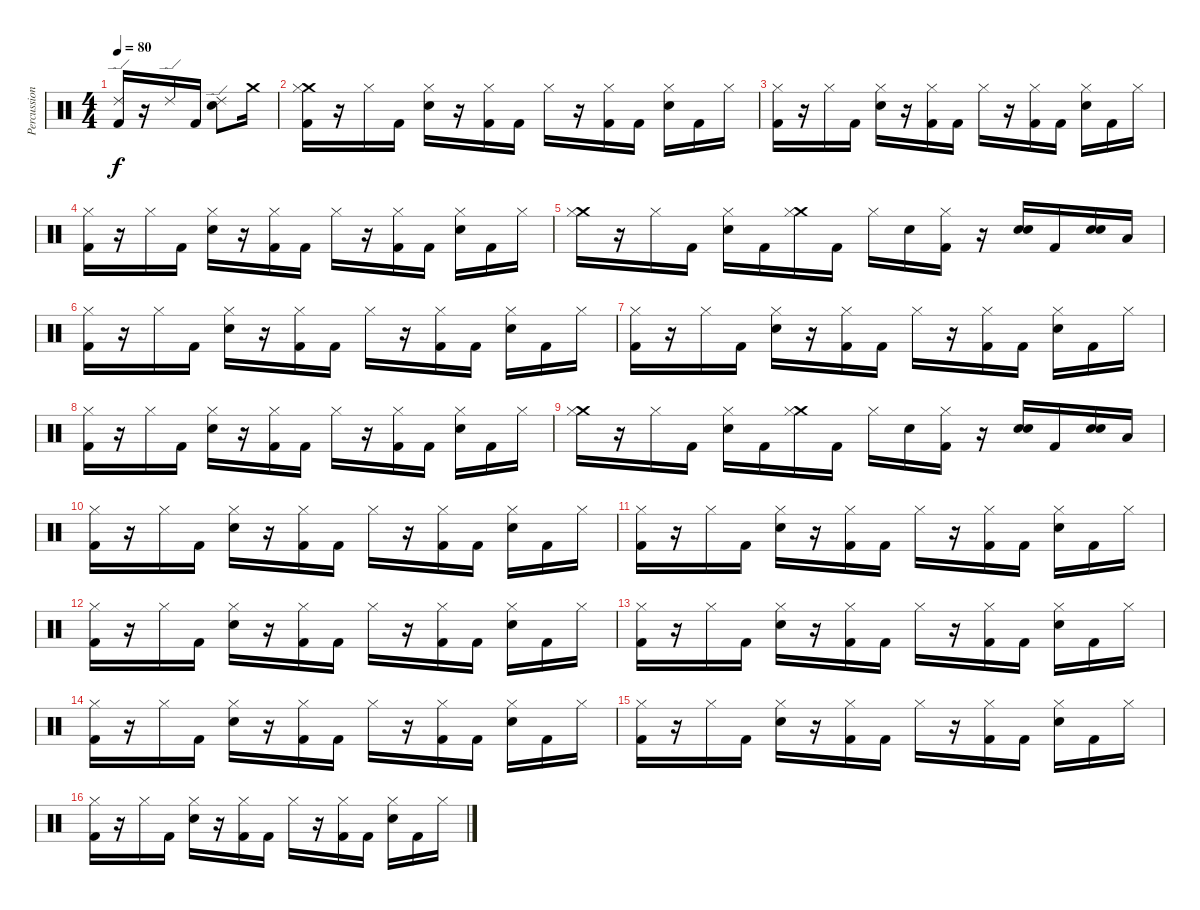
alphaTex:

\track ("Percussion" "Percussion") {instrument percussion}
\staff {score}
\articulation defaults
\ts (4 4)
\tempo 80
\clef neutral
\ks c
("Ride (edge) 2" "Kick (hit) 2").16{dy f} r.16 "Ride (edge) 2".16 "Kick (hit) 2".16 ("Ride (edge) 2" "Electric Snare (hit)").8 "Crash medium (hit)".16 |
("Crash medium (hit)" "Hi-Hat (closed)" "Kick (hit) 2").16 r.16 "Hi-Hat (closed)".16 "Kick (hit) 2".16 ("Hi-Hat (closed)" "Electric Snare (hit)").16 r.16 ("Hi-Hat (closed)" "Kick (hit) 2").16 "Kick (hit) 2".16 "Hi-Hat (closed)".16 r.16 ("Hi-Hat (closed)" "Kick (hit) 2").16 "Kick (hit) 2".16 ("Hi-Hat (closed)" "Electric Snare (hit)").16 "Kick (hit) 2".16 "Hi-Hat (closed)".16 |
("Hi-Hat (closed)" "Kick (hit) 2").16 r.16 "Hi-Hat (closed)".16 "Kick (hit) 2".16 ("Hi-Hat (closed)" "Electric Snare (hit)").16 r.16 ("Hi-Hat (closed)" "Kick (hit) 2").16 "Kick (hit) 2".16 "Hi-Hat (closed)".16 r.16 ("Hi-Hat (closed)" "Kick (hit) 2").16 "Kick (hit) 2".16 ("Hi-Hat (closed)" "Electric Snare (hit)").16 "Kick (hit) 2".16 "Hi-Hat (closed)".16 |
("Hi-Hat (closed)" "Kick (hit) 2").16 r.16 "Hi-Hat (closed)".16 "Kick (hit) 2".16 ("Hi-Hat (closed)" "Electric Snare (hit)").16 r.16 ("Hi-Hat (closed)" "Kick (hit) 2").16 "Kick (hit) 2".16 "Hi-Hat (closed)".16 r.16 ("Hi-Hat (closed)" "Kick (hit) 2").16 "Kick (hit) 2".16 ("Hi-Hat (closed)" "Electric Snare (hit)").16 "Kick (hit) 2".16 "Hi-Hat (closed)".16 |
("Crash medium (hit)" "Hi-Hat (closed)").16 r.16 "Hi-Hat (closed)".16 "Kick (hit) 2".16 ("Hi-Hat (closed)" "Electric Snare (hit)").16 "Kick (hit) 2".16 ("Crash medium (hit)" "Hi-Hat (closed)").16 "Kick (hit) 2".16 "Hi-Hat (closed)".16 "Electric Snare (hit)".16 ("Hi-Hat (closed)" "Kick (hit) 2").16 r.16 ("Electric Snare (hit)" "Electric Snare (hit)").16 "Kick (hit) 2".16 ("Electric Snare (hit)" "Electric Snare (hit)").16 "Low Tom (hit)".16 |
("Hi-Hat (closed)" "Kick (hit) 2").16 r.16 "Hi-Hat (closed)".16 "Kick (hit) 2".16 ("Hi-Hat (closed)" "Electric Snare (hit)").16 r.16 ("Hi-Hat (closed)" "Kick (hit) 2").16 "Kick (hit) 2".16 "Hi-Hat (closed)".16 r.16 ("Hi-Hat (closed)" "Kick (hit) 2").16 "Kick (hit) 2".16 ("Hi-Hat (closed)" "Electric Snare (hit)").16 "Kick (hit) 2".16 "Hi-Hat (closed)".16 |
("Hi-Hat (closed)" "Kick (hit) 2").16 r.16 "Hi-Hat (closed)".16 "Kick (hit) 2".16 ("Hi-Hat (closed)" "Electric Snare (hit)").16 r.16 ("Hi-Hat (closed)" "Kick (hit) 2").16 "Kick (hit) 2".16 "Hi-Hat (closed)".16 r.16 ("Hi-Hat (closed)" "Kick (hit) 2").16 "Kick (hit) 2".16 ("Hi-Hat (closed)" "Electric Snare (hit)").16 "Kick (hit) 2".16 "Hi-Hat (closed)".16 |
("Hi-Hat (closed)" "Kick (hit) 2").16 r.16 "Hi-Hat (closed)".16 "Kick (hit) 2".16 ("Hi-Hat (closed)" "Electric Snare (hit)").16 r.16 ("Hi-Hat (closed)" "Kick (hit) 2").16 "Kick (hit) 2".16 "Hi-Hat (closed)".16 r.16 ("Hi-Hat (closed)" "Kick (hit) 2").16 "Kick (hit) 2".16 ("Hi-Hat (closed)" "Electric Snare (hit)").16 "Kick (hit) 2".16 "Hi-Hat (closed)".16 |
("Crash medium (hit)" "Hi-Hat (closed)").16 r.16 "Hi-Hat (closed)".16 "Kick (hit) 2".16 ("Hi-Hat (closed)" "Electric Snare (hit)").16 "Kick (hit) 2".16 ("Crash medium (hit)" "Hi-Hat (closed)").16 "Kick (hit) 2".16 "Hi-Hat (closed)".16 "Electric Snare (hit)".16 ("Hi-Hat (closed)" "Kick (hit) 2").16 r.16 ("Electric Snare (hit)" "Electric Snare (hit)").16 "Kick (hit) 2".16 ("Electric Snare (hit)" "Electric Snare (hit)").16 "Low Tom (hit)".16 |
("Hi-Hat (closed)" "Kick (hit) 2").16 r.16 "Hi-Hat (closed)".16 "Kick (hit) 2".16 ("Hi-Hat (closed)" "Electric Snare (hit)").16 r.16 ("Hi-Hat (closed)" "Kick (hit) 2").16 "Kick (hit) 2".16 "Hi-Hat (closed)".16 r.16 ("Hi-Hat (closed)" "Kick (hit) 2").16 "Kick (hit) 2".16 ("Hi-Hat (closed)" "Electric Snare (hit)").16 "Kick (hit) 2".16 "Hi-Hat (closed)".16 |
("Hi-Hat (closed)" "Kick (hit) 2").16 r.16 "Hi-Hat (closed)".16 "Kick (hit) 2".16 ("Hi-Hat (closed)" "Electric Snare (hit)").16 r.16 ("Hi-Hat (closed)" "Kick (hit) 2").16 "Kick (hit) 2".16 "Hi-Hat (closed)".16 r.16 ("Hi-Hat (closed)" "Kick (hit) 2").16 "Kick (hit) 2".16 ("Hi-Hat (closed)" "Electric Snare (hit)").16 "Kick (hit) 2".16 "Hi-Hat (closed)".16 |
("Hi-Hat (closed)" "Kick (hit) 2").16 r.16 "Hi-Hat (closed)".16 "Kick (hit) 2".16 ("Hi-Hat (closed)" "Electric Snare (hit)").16 r.16 ("Hi-Hat (closed)" "Kick (hit) 2").16 "Kick (hit) 2".16 "Hi-Hat (closed)".16 r.16 ("Hi-Hat (closed)" "Kick (hit) 2").16 "Kick (hit) 2".16 ("Hi-Hat (closed)" "Electric Snare (hit)").16 "Kick (hit) 2".16 "Hi-Hat (closed)".16 |
("Hi-Hat (closed)" "Kick (hit) 2").16 r.16 "Hi-Hat (closed)".16 "Kick (hit) 2".16 ("Hi-Hat (closed)" "Electric Snare (hit)").16 r.16 ("Hi-Hat (closed)" "Kick (hit) 2").16 "Kick (hit) 2".16 "Hi-Hat (closed)".16 r.16 ("Hi-Hat (closed)" "Kick (hit) 2").16 "Kick (hit) 2".16 ("Hi-Hat (closed)" "Electric Snare (hit)").16 "Kick (hit) 2".16 "Hi-Hat (closed)".16 |
("Hi-Hat (closed)" "Kick (hit) 2").16 r.16 "Hi-Hat (closed)".16 "Kick (hit) 2".16 ("Hi-Hat (closed)" "Electric Snare (hit)").16 r.16 ("Hi-Hat (closed)" "Kick (hit) 2").16 "Kick (hit) 2".16 "Hi-Hat (closed)".16 r.16 ("Hi-Hat (closed)" "Kick (hit) 2").16 "Kick (hit) 2".16 ("Hi-Hat (closed)" "Electric Snare (hit)").16 "Kick (hit) 2".16 "Hi-Hat (closed)".16 |
("Hi-Hat (closed)" "Kick (hit) 2").16 r.16 "Hi-Hat (closed)".16 "Kick (hit) 2".16 ("Hi-Hat (closed)" "Electric Snare (hit)").16 r.16 ("Hi-Hat (closed)" "Kick (hit) 2").16 "Kick (hit) 2".16 "Hi-Hat (closed)".16 r.16 ("Hi-Hat (closed)" "Kick (hit) 2").16 "Kick (hit) 2".16 ("Hi-Hat (closed)" "Electric Snare (hit)").16 "Kick (hit) 2".16 "Hi-Hat (closed)".16 |
("Hi-Hat (closed)" "Kick (hit) 2").16 r.16 "Hi-Hat (closed)".16 "Kick (hit) 2".16 ("Hi-Hat (closed)" "Electric Snare (hit)").16 r.16 ("Hi-Hat (closed)" "Kick (hit) 2").16 "Kick (hit) 2".16 "Hi-Hat (closed)".16 r.16 ("Hi-Hat (closed)" "Kick (hit) 2").16 "Kick (hit) 2".16 ("Hi-Hat (closed)" "Electric Snare (hit)").16 "Kick (hit) 2".16 "Hi-Hat (closed)".16
